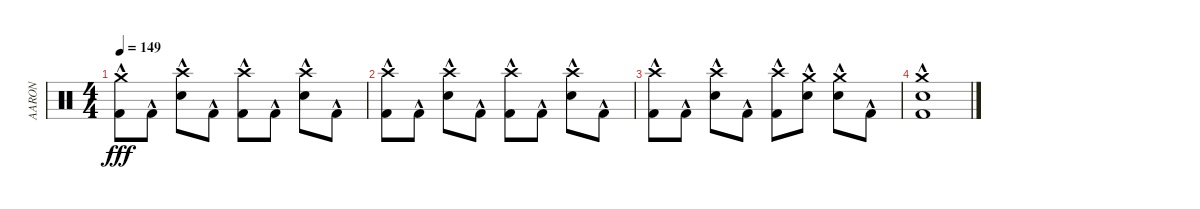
\track ("AARON" "AARON") {instrument percussion}
\staff {score}
\articulation defaults
\ts (4 4)
\tempo 149
\clef neutral
\ks c
("Crash medium (hit)" "Kick (hit) 2"{hac}).8{dy fff} "Kick (hit) 2"{hac}.8 ("Crash high (hit)" "Snare (hit) 2"{hac}).8 "Kick (hit) 2"{hac}.8 ("Crash high (hit)" "Kick (hit) 2"{hac}).8 "Kick (hit) 2"{hac}.8 ("Crash high (hit)" "Snare (hit) 2"{hac}).8 "Kick (hit) 2"{hac}.8 |
("Crash high (hit)" "Kick (hit) 2"{hac}).8 "Kick (hit) 2"{hac}.8 ("Crash high (hit)" "Snare (hit) 2"{hac}).8 "Kick (hit) 2"{hac}.8 ("Crash high (hit)" "Kick (hit) 2"{hac}).8 "Kick (hit) 2"{hac}.8 ("Crash high (hit)" "Snare (hit) 2"{hac}).8 "Kick (hit) 2"{hac}.8 |
("Crash high (hit)" "Kick (hit) 2"{hac}).8 "Kick (hit) 2"{hac}.8 ("Crash high (hit)" "Snare (hit) 2"{hac}).8 "Kick (hit) 2"{hac}.8 ("Crash high (hit)" "Kick (hit) 2"{hac}).8 ("Crash medium (hit)" "Snare (hit) 2"{hac}).8 ("Crash medium (hit)" "Snare (hit) 2"{hac}).8 "Kick (hit) 2"{hac}.8 |
("Crash medium (hit)" "Snare (hit) 2"{hac} "Kick (hit) 2"{hac}).1
